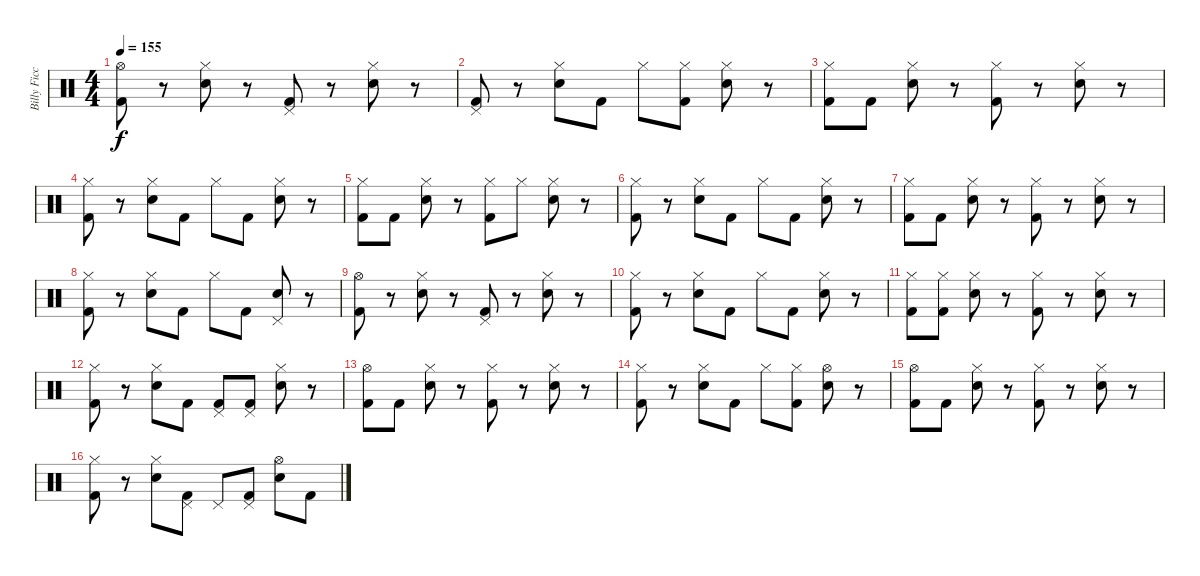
\track ("Billy Ficca" "Billy Ficc") {instrument percussion}
\staff {score}
\articulation defaults
\ts (4 4)
\tempo 155
\clef neutral
\ks c
("Hi-Hat (open)" "Kick (hit) 2").8{dy f} r.8 ("Hi-Hat (closed)" "Electric Snare (hit)").8 r.8 ("Pedal Hi-Hat (hit)" "Kick (hit) 2").8 r.8 ("Hi-Hat (closed)" "Electric Snare (hit)").8 r.8 |
("Pedal Hi-Hat (hit)" "Kick (hit) 2").8 r.8 ("Hi-Hat (closed)" "Electric Snare (hit)").8 "Kick (hit) 2".8 "Hi-Hat (closed)".8 ("Hi-Hat (closed)" "Kick (hit) 2").8 ("Hi-Hat (closed)" "Electric Snare (hit)").8 r.8 |
("Hi-Hat (closed)" "Kick (hit) 2").8 "Kick (hit) 2".8 ("Hi-Hat (closed)" "Electric Snare (hit)").8 r.8 ("Hi-Hat (closed)" "Kick (hit) 2").8 r.8 ("Hi-Hat (closed)" "Electric Snare (hit)").8 r.8 |
("Hi-Hat (closed)" "Kick (hit) 2").8 r.8 ("Hi-Hat (closed)" "Electric Snare (hit)").8 "Kick (hit) 2".8 "Hi-Hat (closed)".8 "Kick (hit) 2".8 ("Hi-Hat (closed)" "Electric Snare (hit)").8 r.8 |
("Hi-Hat (closed)" "Kick (hit) 2").8 "Kick (hit) 2".8 ("Hi-Hat (closed)" "Electric Snare (hit)").8 r.8 ("Hi-Hat (closed)" "Kick (hit) 2").8 "Hi-Hat (closed)".8 ("Hi-Hat (closed)" "Electric Snare (hit)").8 r.8 |
("Hi-Hat (closed)" "Kick (hit) 2").8 r.8 ("Hi-Hat (closed)" "Electric Snare (hit)").8 "Kick (hit) 2".8 "Hi-Hat (closed)".8 "Kick (hit) 2".8 ("Hi-Hat (closed)" "Electric Snare (hit)").8 r.8 |
("Hi-Hat (closed)" "Kick (hit) 2").8 "Kick (hit) 2".8 ("Hi-Hat (closed)" "Electric Snare (hit)").8 r.8 ("Hi-Hat (closed)" "Kick (hit) 2").8 r.8 ("Hi-Hat (closed)" "Electric Snare (hit)").8 r.8 |
("Hi-Hat (closed)" "Kick (hit) 2").8 r.8 ("Hi-Hat (closed)" "Electric Snare (hit)").8 "Kick (hit) 2".8 "Hi-Hat (closed)".8 "Kick (hit) 2".8 ("Pedal Hi-Hat (hit)" "Electric Snare (hit)").8 r.8 |
("Hi-Hat (open)" "Kick (hit) 2").8 r.8 ("Hi-Hat (closed)" "Electric Snare (hit)").8 r.8 ("Pedal Hi-Hat (hit)" "Kick (hit) 2").8 r.8 ("Hi-Hat (closed)" "Electric Snare (hit)").8 r.8 |
("Hi-Hat (closed)" "Kick (hit) 2").8 r.8 ("Hi-Hat (closed)" "Electric Snare (hit)").8 "Kick (hit) 2".8 "Hi-Hat (closed)".8 "Kick (hit) 2".8 ("Hi-Hat (closed)" "Electric Snare (hit)").8 r.8 |
("Hi-Hat (closed)" "Kick (hit) 2").8 ("Hi-Hat (closed)" "Kick (hit) 2").8 ("Hi-Hat (closed)" "Electric Snare (hit)").8 r.8 ("Hi-Hat (closed)" "Kick (hit) 2").8 r.8 ("Hi-Hat (closed)" "Electric Snare (hit)").8 r.8 |
("Hi-Hat (closed)" "Kick (hit) 2").8 r.8 ("Hi-Hat (closed)" "Electric Snare (hit)").8 "Kick (hit) 2".8 ("Pedal Hi-Hat (hit)" "Kick (hit) 2").8 ("Pedal Hi-Hat (hit)" "Kick (hit) 2").8 ("Hi-Hat (closed)" "Electric Snare (hit)").8 r.8 |
("Hi-Hat (open)" "Kick (hit) 2").8 "Kick (hit) 2".8 ("Hi-Hat (closed)" "Electric Snare (hit)").8 r.8 ("Hi-Hat (closed)" "Kick (hit) 2").8 r.8 ("Hi-Hat (closed)" "Electric Snare (hit)").8 r.8 |
("Hi-Hat (closed)" "Kick (hit) 2").8 r.8 ("Hi-Hat (closed)" "Electric Snare (hit)").8 "Kick (hit) 2".8 "Hi-Hat (closed)".8 ("Hi-Hat (closed)" "Kick (hit) 2").8 ("Hi-Hat (open)" "Electric Snare (hit)").8 r.8 |
("Hi-Hat (open)" "Kick (hit) 2").8 "Kick (hit) 2".8 ("Hi-Hat (closed)" "Electric Snare (hit)").8 r.8 ("Hi-Hat (closed)" "Kick (hit) 2").8 r.8 ("Hi-Hat (closed)" "Electric Snare (hit)").8 r.8 |
("Hi-Hat (closed)" "Kick (hit) 2").8 r.8 ("Hi-Hat (closed)" "Electric Snare (hit)").8 ("Pedal Hi-Hat (hit)" "Kick (hit) 2").8 "Pedal Hi-Hat (hit)".8 ("Pedal Hi-Hat (hit)" "Kick (hit) 2").8 ("Hi-Hat (open)" "Electric Snare (hit)").8 "Kick (hit) 2".8
